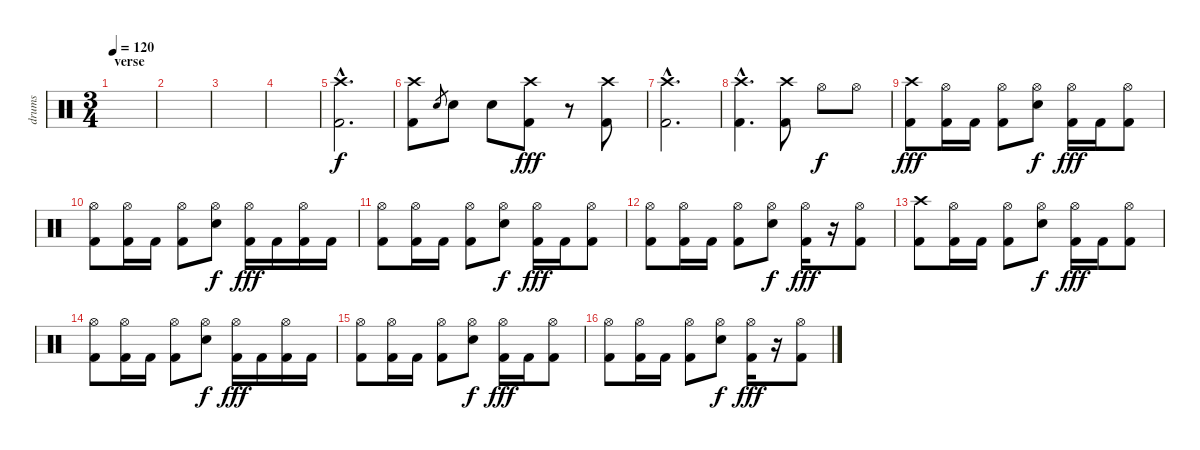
\track ("drums" "drums") {instrument percussion}
\staff {score}
\articulation defaults
\ts (3 4)
\section ("" "verse")
\tempo 120
\clef neutral
\ks c
|
|
|
|
("Crash high (hit)"{hac} "Kick (hit) 2"{hac}).2{d} |
("Crash high (hit)" "Kick (hit) 2").8 "Snare (hit) 2".8{gr dy f} "Snare (hit) 2".8 "Snare (hit) 2".8 ("Crash high (hit)" "Kick (hit) 2").8{dy fff} r.8 ("Crash high (hit)" "Kick (hit) 2").8 |
("Crash high (hit)"{hac} "Kick (hit) 2"{hac}).2{d} |
("Crash high (hit)"{hac} "Kick (hit) 2"{hac}).4{d} ("Crash high (hit)" "Kick (hit) 2").8 "Hi-Hat (open)".8{dy f} "Hi-Hat (open)".8 |
("Crash high (hit)" "Kick (hit) 2").8{dy fff} ("Hi-Hat (open)" "Kick (hit) 2").16 "Kick (hit) 2".16 ("Hi-Hat (open)" "Kick (hit) 2").8 ("Hi-Hat (open)" "Snare (hit) 2").8{dy f} ("Hi-Hat (open)" "Kick (hit) 2").16{dy fff} "Kick (hit) 2".16 ("Hi-Hat (open)" "Kick (hit) 2").8 |
("Hi-Hat (open)" "Kick (hit) 2").8 ("Hi-Hat (open)" "Kick (hit) 2").16 "Kick (hit) 2".16 ("Hi-Hat (open)" "Kick (hit) 2").8 ("Hi-Hat (open)" "Snare (hit) 2").8{dy f} ("Hi-Hat (open)" "Kick (hit) 2").16{dy fff} "Kick (hit) 2".16 ("Hi-Hat (open)" "Kick (hit) 2").16 "Kick (hit) 2".16 |
("Hi-Hat (open)" "Kick (hit) 2").8 ("Hi-Hat (open)" "Kick (hit) 2").16 "Kick (hit) 2".16 ("Hi-Hat (open)" "Kick (hit) 2").8 ("Hi-Hat (open)" "Snare (hit) 2").8{dy f} ("Hi-Hat (open)" "Kick (hit) 2").16{dy fff} "Kick (hit) 2".16 ("Hi-Hat (open)" "Kick (hit) 2").8 |
("Hi-Hat (open)" "Kick (hit) 2").8 ("Hi-Hat (open)" "Kick (hit) 2").16 "Kick (hit) 2".16 ("Hi-Hat (open)" "Kick (hit) 2").8 ("Hi-Hat (open)" "Snare (hit) 2").8{dy f} ("Hi-Hat (open)" "Kick (hit) 2").16{dy fff} r.16 ("Hi-Hat (open)" "Kick (hit) 2").8 |
("Crash high (hit)" "Kick (hit) 2").8 ("Hi-Hat (open)" "Kick (hit) 2").16 "Kick (hit) 2".16 ("Hi-Hat (open)" "Kick (hit) 2").8 ("Hi-Hat (open)" "Snare (hit) 2").8{dy f} ("Hi-Hat (open)" "Kick (hit) 2").16{dy fff} "Kick (hit) 2".16 ("Hi-Hat (open)" "Kick (hit) 2").8 |
("Hi-Hat (open)" "Kick (hit) 2").8 ("Hi-Hat (open)" "Kick (hit) 2").16 "Kick (hit) 2".16 ("Hi-Hat (open)" "Kick (hit) 2").8 ("Hi-Hat (open)" "Snare (hit) 2").8{dy f} ("Hi-Hat (open)" "Kick (hit) 2").16{dy fff} "Kick (hit) 2".16 ("Hi-Hat (open)" "Kick (hit) 2").16 "Kick (hit) 2".16 |
("Hi-Hat (open)" "Kick (hit) 2").8 ("Hi-Hat (open)" "Kick (hit) 2").16 "Kick (hit) 2".16 ("Hi-Hat (open)" "Kick (hit) 2").8 ("Hi-Hat (open)" "Snare (hit) 2").8{dy f} ("Hi-Hat (open)" "Kick (hit) 2").16{dy fff} "Kick (hit) 2".16 ("Hi-Hat (open)" "Kick (hit) 2").8 |
("Hi-Hat (open)" "Kick (hit) 2").8 ("Hi-Hat (open)" "Kick (hit) 2").16 "Kick (hit) 2".16 ("Hi-Hat (open)" "Kick (hit) 2").8 ("Hi-Hat (open)" "Snare (hit) 2").8{dy f} ("Hi-Hat (open)" "Kick (hit) 2").16{dy fff} r.16 ("Hi-Hat (open)" "Kick (hit) 2").8
